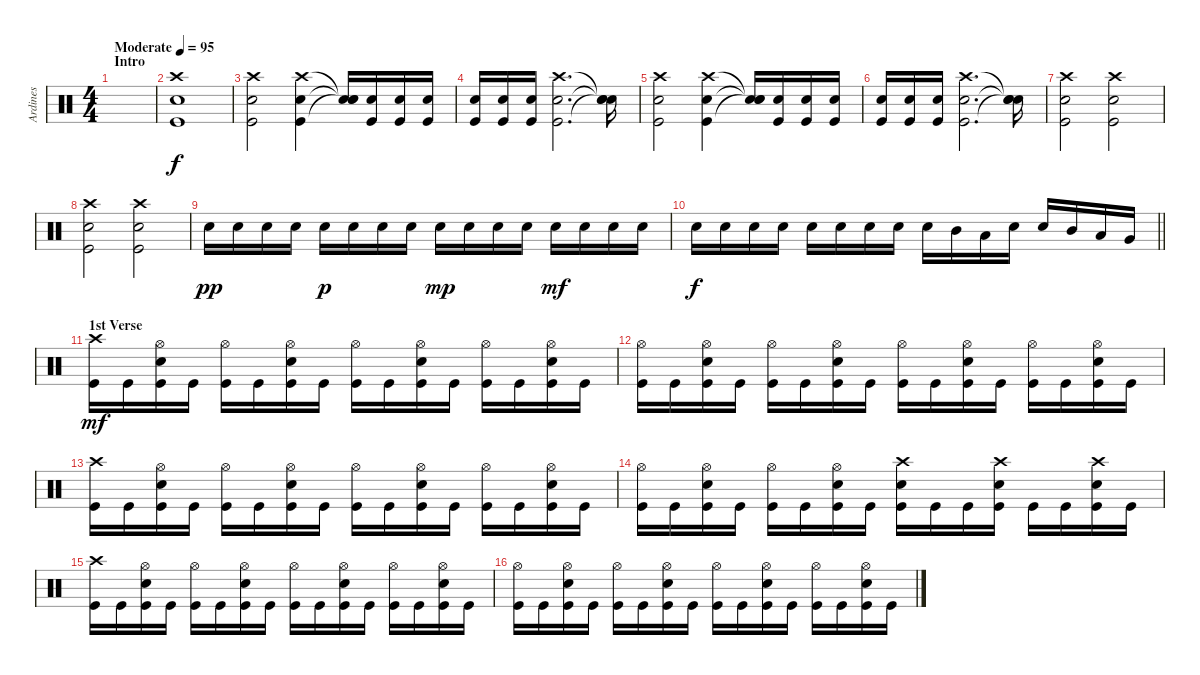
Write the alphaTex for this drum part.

\track ("Ardines" "Ardines") {instrument percussion}
\staff {score}
\articulation defaults
\ts (4 4)
\section ("" "Intro")
\tempo (95 "Moderate")
\clef neutral
\ks c
|
("Crash high (hit)" "Snare (hit) 2" "Kick (hit)").1 |
("Crash high (hit)" "Snare (hit) 2" "Kick (hit)").2 ("Crash high (hit)" "Snare (hit) 2" "Kick (hit)").4 ("Snare (hit)"{t} "Snare (hit)"{t} "Snare (hit)"{t}).16 ("Snare (hit) 2" "Kick (hit)").16 ("Snare (hit) 2" "Kick (hit)").16 ("Snare (hit) 2" "Kick (hit)").16 |
("Snare (hit) 2" "Kick (hit)").16 ("Snare (hit) 2" "Kick (hit)").16 ("Snare (hit) 2" "Kick (hit)").16 ("Crash high (hit)" "Snare (hit) 2" "Kick (hit)").2{d} ("Snare (hit)"{t} "Snare (hit)"{t} "Snare (hit)"{t}).16 |
("Crash high (hit)" "Snare (hit) 2" "Kick (hit)").2 ("Crash high (hit)" "Snare (hit) 2" "Kick (hit)").4 ("Snare (hit)"{t} "Snare (hit)"{t} "Snare (hit)"{t}).16 ("Snare (hit) 2" "Kick (hit)").16 ("Snare (hit) 2" "Kick (hit)").16 ("Snare (hit) 2" "Kick (hit)").16 |
("Snare (hit) 2" "Kick (hit)").16 ("Snare (hit) 2" "Kick (hit)").16 ("Snare (hit) 2" "Kick (hit)").16 ("Crash high (hit)" "Snare (hit) 2" "Kick (hit)").2{d} ("Snare (hit)"{t} "Snare (hit)"{t} "Snare (hit)"{t}).16 |
("Crash high (hit)" "Snare (hit) 2" "Kick (hit)").2 ("Crash high (hit)" "Snare (hit) 2" "Kick (hit)").2 |
("Crash high (hit)" "Snare (hit) 2" "Kick (hit)").2 ("Crash high (hit)" "Snare (hit) 2" "Kick (hit)").2 |
"Snare (hit) 2".16{dy pp} "Snare (hit) 2".16 "Snare (hit) 2".16 "Snare (hit) 2".16 "Snare (hit) 2".16{dy p} "Snare (hit) 2".16 "Snare (hit) 2".16 "Snare (hit) 2".16 "Snare (hit) 2".16{dy mp} "Snare (hit) 2".16 "Snare (hit) 2".16 "Snare (hit) 2".16 "Snare (hit) 2".16{dy mf} "Snare (hit) 2".16 "Snare (hit) 2".16 "Snare (hit) 2".16 |
\barLineRight lightlight "Snare (hit) 2".16{dy f} "Snare (hit) 2".16 "Snare (hit) 2".16 "Snare (hit) 2".16 "Snare (hit) 2".16 "Snare (hit) 2".16 "Snare (hit) 2".16 "Snare (hit) 2".16 "Snare (hit) 2".16 "Mid Tom (hit)".16 "Low Tom (hit)".16 "Snare (hit) 2".16 "Snare (hit) 2".16 "Mid Tom (hit)".16 "Low Tom (hit)".16 "Very Low Tom (hit)".16
|
\section ("" "1st Verse")
("Crash high (hit)" "Kick (hit)").16{dy mf} "Kick (hit)".16 ("Hi-Hat (open)" "Snare (hit) 2" "Kick (hit)").16 "Kick (hit)".16 ("Hi-Hat (open)" "Kick (hit)").16 "Kick (hit)".16 ("Hi-Hat (open)" "Snare (hit) 2" "Kick (hit)").16 "Kick (hit)".16 ("Hi-Hat (open)" "Kick (hit)").16 "Kick (hit)".16 ("Hi-Hat (open)" "Snare (hit) 2" "Kick (hit)").16 "Kick (hit)".16 ("Hi-Hat (open)" "Kick (hit)").16 "Kick (hit)".16 ("Hi-Hat (open)" "Snare (hit) 2" "Kick (hit)").16 "Kick (hit)".16 |
("Hi-Hat (open)" "Kick (hit)").16 "Kick (hit)".16 ("Hi-Hat (open)" "Snare (hit) 2" "Kick (hit)").16 "Kick (hit)".16 ("Hi-Hat (open)" "Kick (hit)").16 "Kick (hit)".16 ("Hi-Hat (open)" "Snare (hit) 2" "Kick (hit)").16 "Kick (hit)".16 ("Hi-Hat (open)" "Kick (hit)").16 "Kick (hit)".16 ("Hi-Hat (open)" "Snare (hit) 2" "Kick (hit)").16 "Kick (hit)".16 ("Hi-Hat (open)" "Kick (hit)").16 "Kick (hit)".16 ("Hi-Hat (open)" "Snare (hit) 2" "Kick (hit)").16 "Kick (hit)".16 |
("Crash high (hit)" "Kick (hit)").16 "Kick (hit)".16 ("Hi-Hat (open)" "Snare (hit) 2" "Kick (hit)").16 "Kick (hit)".16 ("Hi-Hat (open)" "Kick (hit)").16 "Kick (hit)".16 ("Hi-Hat (open)" "Snare (hit) 2" "Kick (hit)").16 "Kick (hit)".16 ("Hi-Hat (open)" "Kick (hit)").16 "Kick (hit)".16 ("Hi-Hat (open)" "Snare (hit) 2" "Kick (hit)").16 "Kick (hit)".16 ("Hi-Hat (open)" "Kick (hit)").16 "Kick (hit)".16 ("Hi-Hat (open)" "Snare (hit) 2" "Kick (hit)").16 "Kick (hit)".16 |
("Hi-Hat (open)" "Kick (hit)").16 "Kick (hit)".16 ("Hi-Hat (open)" "Snare (hit) 2" "Kick (hit)").16 "Kick (hit)".16 ("Hi-Hat (open)" "Kick (hit)").16 "Kick (hit)".16 ("Hi-Hat (open)" "Snare (hit) 2" "Kick (hit)").16 "Kick (hit)".16 ("Crash high (hit)" "Snare (hit) 2" "Kick (hit)").16 "Kick (hit)".16 "Kick (hit)".16 ("Crash high (hit)" "Snare (hit) 2" "Kick (hit)").16 "Kick (hit)".16 "Kick (hit)".16 ("Crash high (hit)" "Snare (hit) 2" "Kick (hit)").16 "Kick (hit)".16 |
("Crash high (hit)" "Kick (hit)").16 "Kick (hit)".16 ("Hi-Hat (open)" "Snare (hit) 2" "Kick (hit)").16 "Kick (hit)".16 ("Hi-Hat (open)" "Kick (hit)").16 "Kick (hit)".16 ("Hi-Hat (open)" "Snare (hit) 2" "Kick (hit)").16 "Kick (hit)".16 ("Hi-Hat (open)" "Kick (hit)").16 "Kick (hit)".16 ("Hi-Hat (open)" "Snare (hit) 2" "Kick (hit)").16 "Kick (hit)".16 ("Hi-Hat (open)" "Kick (hit)").16 "Kick (hit)".16 ("Hi-Hat (open)" "Snare (hit) 2" "Kick (hit)").16 "Kick (hit)".16 |
("Hi-Hat (open)" "Kick (hit)").16 "Kick (hit)".16 ("Hi-Hat (open)" "Snare (hit) 2" "Kick (hit)").16 "Kick (hit)".16 ("Hi-Hat (open)" "Kick (hit)").16 "Kick (hit)".16 ("Hi-Hat (open)" "Snare (hit) 2" "Kick (hit)").16 "Kick (hit)".16 ("Hi-Hat (open)" "Kick (hit)").16 "Kick (hit)".16 ("Hi-Hat (open)" "Snare (hit) 2" "Kick (hit)").16 "Kick (hit)".16 ("Hi-Hat (open)" "Kick (hit)").16 "Kick (hit)".16 ("Hi-Hat (open)" "Snare (hit) 2" "Kick (hit)").16 "Kick (hit)".16
